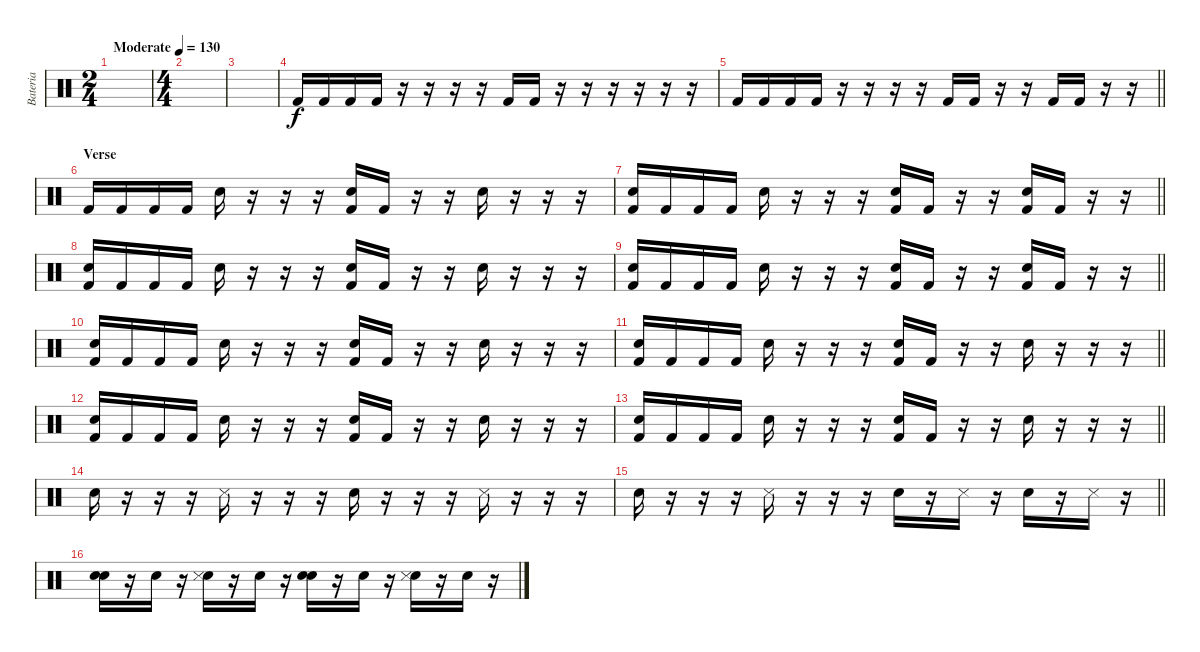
\track ("Bateria" "Bateria") {instrument percussion}
\staff {score}
\articulation defaults
\ts (2 4)
\tempo (130 "Moderate")
\clef neutral
\ks c
|
\ts (4 4)
|
|
"Kick (hit) 2".16 "Kick (hit) 2".16 "Kick (hit) 2".16 "Kick (hit) 2".16 r.16 r.16 r.16 r.16 "Kick (hit) 2".16 "Kick (hit) 2".16 r.16 r.16 r.16 r.16 r.16 r.16 |
\barLineRight lightlight "Kick (hit) 2".16 "Kick (hit) 2".16 "Kick (hit) 2".16 "Kick (hit) 2".16
r.16 r.16 r.16 r.16 "Kick (hit) 2".16 "Kick (hit) 2".16 r.16 r.16 "Kick (hit) 2".16 "Kick (hit) 2".16 r.16 r.16 |
\section ("" "Verse")
"Kick (hit) 2".16 "Kick (hit) 2".16 "Kick (hit) 2".16 "Kick (hit) 2".16 "Snare (hit) 2".16 r.16 r.16 r.16 ("Snare (hit) 2" "Kick (hit) 2").16 "Kick (hit) 2".16 r.16 r.16 "Snare (hit) 2".16 r.16 r.16 r.16 |
\barLineRight lightlight
("Snare (hit) 2" "Kick (hit) 2").16 "Kick (hit) 2".16 "Kick (hit) 2".16 "Kick (hit) 2".16 "Snare (hit) 2".16 r.16 r.16 r.16 ("Snare (hit) 2" "Kick (hit) 2").16 "Kick (hit) 2".16 r.16 r.16 ("Snare (hit) 2" "Kick (hit) 2").16 "Kick (hit) 2".16 r.16 r.16 |
("Snare (hit) 2" "Kick (hit) 2").16 "Kick (hit) 2".16 "Kick (hit) 2".16 "Kick (hit) 2".16 "Snare (hit) 2".16 r.16 r.16 r.16 ("Snare (hit) 2" "Kick (hit) 2").16 "Kick (hit) 2".16 r.16 r.16 "Snare (hit) 2".16 r.16 r.16 r.16 |
\barLineRight lightlight
("Snare (hit) 2" "Kick (hit) 2").16 "Kick (hit) 2".16 "Kick (hit) 2".16 "Kick (hit) 2".16 "Snare (hit) 2".16 r.16 r.16 r.16 ("Snare (hit) 2" "Kick (hit) 2").16 "Kick (hit) 2".16 r.16 r.16 ("Snare (hit) 2" "Kick (hit) 2").16 "Kick (hit) 2".16 r.16 r.16 |
("Snare (hit) 2" "Kick (hit) 2").16 "Kick (hit) 2".16 "Kick (hit) 2".16 "Kick (hit) 2".16 "Snare (hit) 2".16 r.16 r.16 r.16 ("Snare (hit) 2" "Kick (hit) 2").16 "Kick (hit) 2".16 r.16 r.16 "Snare (hit) 2".16 r.16 r.16 r.16 |
\barLineRight lightlight
("Snare (hit) 2" "Kick (hit) 2").16 "Kick (hit) 2".16 "Kick (hit) 2".16 "Kick (hit) 2".16 "Snare (hit) 2".16 r.16 r.16 r.16 ("Snare (hit) 2" "Kick (hit) 2").16 "Kick (hit) 2".16 r.16 r.16 "Snare (hit) 2".16 r.16 r.16 r.16 |
("Snare (hit) 2" "Kick (hit) 2").16 "Kick (hit) 2".16 "Kick (hit) 2".16 "Kick (hit) 2".16 "Snare (hit) 2".16 r.16 r.16 r.16 ("Snare (hit) 2" "Kick (hit) 2").16 "Kick (hit) 2".16 r.16 r.16 "Snare (hit) 2".16 r.16 r.16 r.16 |
\barLineRight lightlight
("Snare (hit) 2" "Kick (hit) 2").16 "Kick (hit) 2".16 "Kick (hit) 2".16 "Kick (hit) 2".16 "Snare (hit) 2".16 r.16 r.16 r.16 ("Snare (hit) 2" "Kick (hit) 2").16 "Kick (hit) 2".16 r.16 r.16 "Snare (hit) 2".16 r.16 r.16 r.16 |
"Snare (hit) 2".16 r.16 r.16 r.16 "Snare (side stick) 3".16 r.16 r.16 r.16 "Snare (hit) 2".16 r.16 r.16 r.16 "Snare (side stick) 3".16 r.16 r.16 r.16 |
\barLineRight lightlight "Snare (hit) 2".16
r.16 r.16 r.16 "Snare (side stick) 3".16 r.16 r.16 r.16 "Snare (hit) 2".16 r.16 "Snare (side stick) 3".16 r.16 "Snare (hit) 2".16 r.16 "Snare (side stick) 3".16 r.16 |
("Snare (hit) 2" "Snare (hit) 2").16 r.16 "Snare (hit) 2".16 r.16 ("Snare (hit) 2" "Snare (side stick) 3").16 r.16 "Snare (hit) 2".16 r.16 ("Snare (hit) 2" "Snare (hit) 2").16 r.16 "Snare (hit) 2".16 r.16 ("Snare (hit) 2" "Snare (side stick) 3").16 r.16 "Snare (hit) 2".16 r.16
